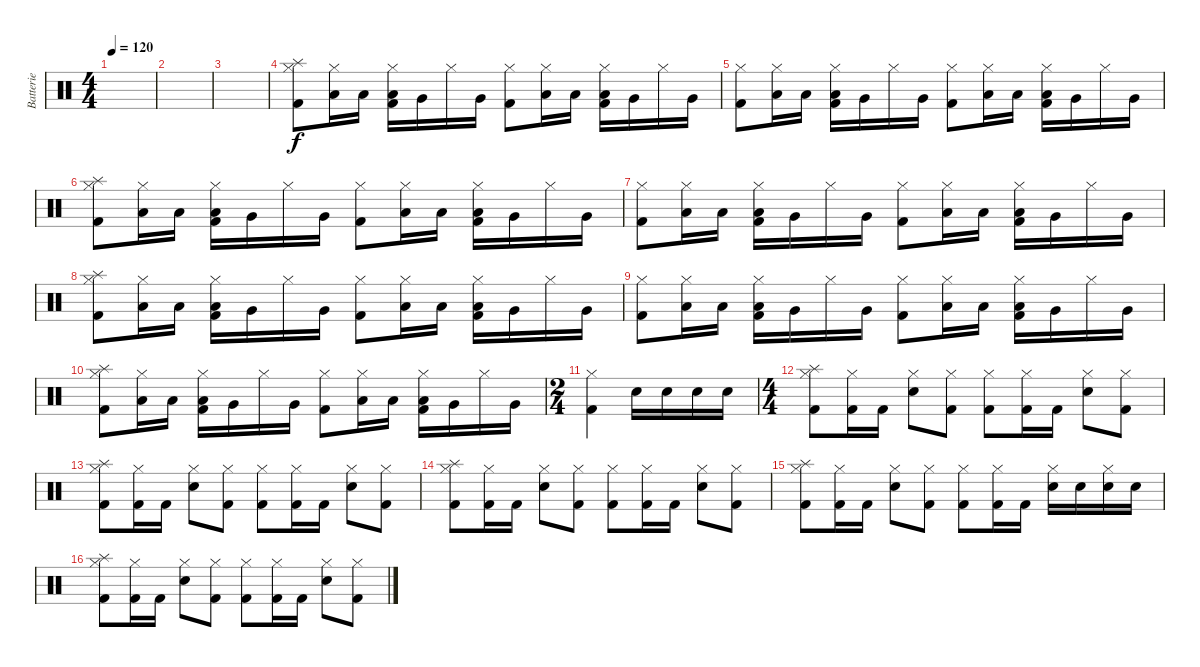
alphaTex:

\track ("Batterie" "Batterie") {instrument percussion}
\staff {score}
\articulation defaults
\ts (4 4)
\tempo 120
\clef neutral
\ks c
|
|
|
("Splash (hit)" "Hi-Hat (closed)" "Kick (hit) 2").8 ("Hi-Hat (closed)" "Low Tom (hit)").16 "Low Tom (hit)".16 ("Hi-Hat (closed)" "Low Tom (hit)" "Kick (hit) 2").16 "Very Low Tom (hit)".16 "Hi-Hat (closed)".16 "Very Low Tom (hit)".16 ("Hi-Hat (closed)" "Kick (hit) 2").8 ("Hi-Hat (closed)" "Low Tom (hit)").16 "Low Tom (hit)".16 ("Hi-Hat (closed)" "Low Tom (hit)" "Kick (hit) 2").16 "Very Low Tom (hit)".16 "Hi-Hat (closed)".16 "Very Low Tom (hit)".16 |
("Hi-Hat (closed)" "Kick (hit) 2").8 ("Hi-Hat (closed)" "Low Tom (hit)").16 "Low Tom (hit)".16 ("Hi-Hat (closed)" "Low Tom (hit)" "Kick (hit) 2").16 "Very Low Tom (hit)".16 "Hi-Hat (closed)".16 "Very Low Tom (hit)".16 ("Hi-Hat (closed)" "Kick (hit) 2").8 ("Hi-Hat (closed)" "Low Tom (hit)").16 "Low Tom (hit)".16 ("Hi-Hat (closed)" "Low Tom (hit)" "Kick (hit) 2").16 "Very Low Tom (hit)".16 "Hi-Hat (closed)".16 "Very Low Tom (hit)".16 |
("Splash (hit)" "Hi-Hat (closed)" "Kick (hit) 2").8 ("Hi-Hat (closed)" "Low Tom (hit)").16 "Low Tom (hit)".16 ("Hi-Hat (closed)" "Low Tom (hit)" "Kick (hit) 2").16 "Very Low Tom (hit)".16 "Hi-Hat (closed)".16 "Very Low Tom (hit)".16 ("Hi-Hat (closed)" "Kick (hit) 2").8 ("Hi-Hat (closed)" "Low Tom (hit)").16 "Low Tom (hit)".16 ("Hi-Hat (closed)" "Low Tom (hit)" "Kick (hit) 2").16 "Very Low Tom (hit)".16 "Hi-Hat (closed)".16 "Very Low Tom (hit)".16 |
("Hi-Hat (closed)" "Kick (hit) 2").8 ("Hi-Hat (closed)" "Low Tom (hit)").16 "Low Tom (hit)".16 ("Hi-Hat (closed)" "Low Tom (hit)" "Kick (hit) 2").16 "Very Low Tom (hit)".16 "Hi-Hat (closed)".16 "Very Low Tom (hit)".16 ("Hi-Hat (closed)" "Kick (hit) 2").8 ("Hi-Hat (closed)" "Low Tom (hit)").16 "Low Tom (hit)".16 ("Hi-Hat (closed)" "Low Tom (hit)" "Kick (hit) 2").16 "Very Low Tom (hit)".16 "Hi-Hat (closed)".16 "Very Low Tom (hit)".16 |
("Splash (hit)" "Hi-Hat (closed)" "Kick (hit) 2").8 ("Hi-Hat (closed)" "Low Tom (hit)").16 "Low Tom (hit)".16 ("Hi-Hat (closed)" "Low Tom (hit)" "Kick (hit) 2").16 "Very Low Tom (hit)".16 "Hi-Hat (closed)".16 "Very Low Tom (hit)".16 ("Hi-Hat (closed)" "Kick (hit) 2").8 ("Hi-Hat (closed)" "Low Tom (hit)").16 "Low Tom (hit)".16 ("Hi-Hat (closed)" "Low Tom (hit)" "Kick (hit) 2").16 "Very Low Tom (hit)".16 "Hi-Hat (closed)".16 "Very Low Tom (hit)".16 |
("Hi-Hat (closed)" "Kick (hit) 2").8 ("Hi-Hat (closed)" "Low Tom (hit)").16 "Low Tom (hit)".16 ("Hi-Hat (closed)" "Low Tom (hit)" "Kick (hit) 2").16 "Very Low Tom (hit)".16 "Hi-Hat (closed)".16 "Very Low Tom (hit)".16 ("Hi-Hat (closed)" "Kick (hit) 2").8 ("Hi-Hat (closed)" "Low Tom (hit)").16 "Low Tom (hit)".16 ("Hi-Hat (closed)" "Low Tom (hit)" "Kick (hit) 2").16 "Very Low Tom (hit)".16 "Hi-Hat (closed)".16 "Very Low Tom (hit)".16 |
("Splash (hit)" "Hi-Hat (closed)" "Kick (hit) 2").8 ("Hi-Hat (closed)" "Low Tom (hit)").16 "Low Tom (hit)".16 ("Hi-Hat (closed)" "Low Tom (hit)" "Kick (hit) 2").16 "Very Low Tom (hit)".16 "Hi-Hat (closed)".16 "Very Low Tom (hit)".16 ("Hi-Hat (closed)" "Kick (hit) 2").8 ("Hi-Hat (closed)" "Low Tom (hit)").16 "Low Tom (hit)".16 ("Hi-Hat (closed)" "Low Tom (hit)" "Kick (hit) 2").16 "Very Low Tom (hit)".16 "Hi-Hat (closed)".16 "Very Low Tom (hit)".16 |
\ts (2 4)
("Hi-Hat (closed)" "Kick (hit) 2").4 "Snare (hit) 2".16 "Snare (hit) 2".16 "Snare (hit) 2".16 "Snare (hit) 2".16 |
\ts (4 4)
("Splash (hit)" "Hi-Hat (closed)" "Kick (hit) 2").8 ("Hi-Hat (closed)" "Kick (hit) 2").16 "Kick (hit) 2".16 ("Hi-Hat (closed)" "Snare (hit) 2").8 ("Hi-Hat (closed)" "Kick (hit) 2").8 ("Hi-Hat (closed)" "Kick (hit) 2").8 ("Hi-Hat (closed)" "Kick (hit) 2").16 "Kick (hit) 2".16 ("Hi-Hat (closed)" "Snare (hit) 2").8 ("Hi-Hat (closed)" "Kick (hit) 2").8 |
("Splash (hit)" "Hi-Hat (closed)" "Kick (hit) 2").8 ("Hi-Hat (closed)" "Kick (hit) 2").16 "Kick (hit) 2".16 ("Hi-Hat (closed)" "Snare (hit) 2").8 ("Hi-Hat (closed)" "Kick (hit) 2").8 ("Hi-Hat (closed)" "Kick (hit) 2").8 ("Hi-Hat (closed)" "Kick (hit) 2").16 "Kick (hit) 2".16 ("Hi-Hat (closed)" "Snare (hit) 2").8 ("Hi-Hat (closed)" "Kick (hit) 2").8 |
("Splash (hit)" "Hi-Hat (closed)" "Kick (hit) 2").8 ("Hi-Hat (closed)" "Kick (hit) 2").16 "Kick (hit) 2".16 ("Hi-Hat (closed)" "Snare (hit) 2").8 ("Hi-Hat (closed)" "Kick (hit) 2").8 ("Hi-Hat (closed)" "Kick (hit) 2").8 ("Hi-Hat (closed)" "Kick (hit) 2").16 "Kick (hit) 2".16 ("Hi-Hat (closed)" "Snare (hit) 2").8 ("Hi-Hat (closed)" "Kick (hit) 2").8 |
("Splash (hit)" "Hi-Hat (closed)" "Kick (hit) 2").8 ("Hi-Hat (closed)" "Kick (hit) 2").16 "Kick (hit) 2".16 ("Hi-Hat (closed)" "Snare (hit) 2").8 ("Hi-Hat (closed)" "Kick (hit) 2").8 ("Hi-Hat (closed)" "Kick (hit) 2").8 ("Hi-Hat (closed)" "Kick (hit) 2").16 "Kick (hit) 2".16 ("Hi-Hat (closed)" "Snare (hit) 2").16 "Snare (hit) 2".16 ("Hi-Hat (closed)" "Snare (hit) 2").16 "Snare (hit) 2".16 |
("Splash (hit)" "Hi-Hat (closed)" "Kick (hit) 2").8 ("Hi-Hat (closed)" "Kick (hit) 2").16 "Kick (hit) 2".16 ("Hi-Hat (closed)" "Snare (hit) 2").8 ("Hi-Hat (closed)" "Kick (hit) 2").8 ("Hi-Hat (closed)" "Kick (hit) 2").8 ("Hi-Hat (closed)" "Kick (hit) 2").16 "Kick (hit) 2".16 ("Hi-Hat (closed)" "Snare (hit) 2").8 ("Hi-Hat (closed)" "Kick (hit) 2").8
